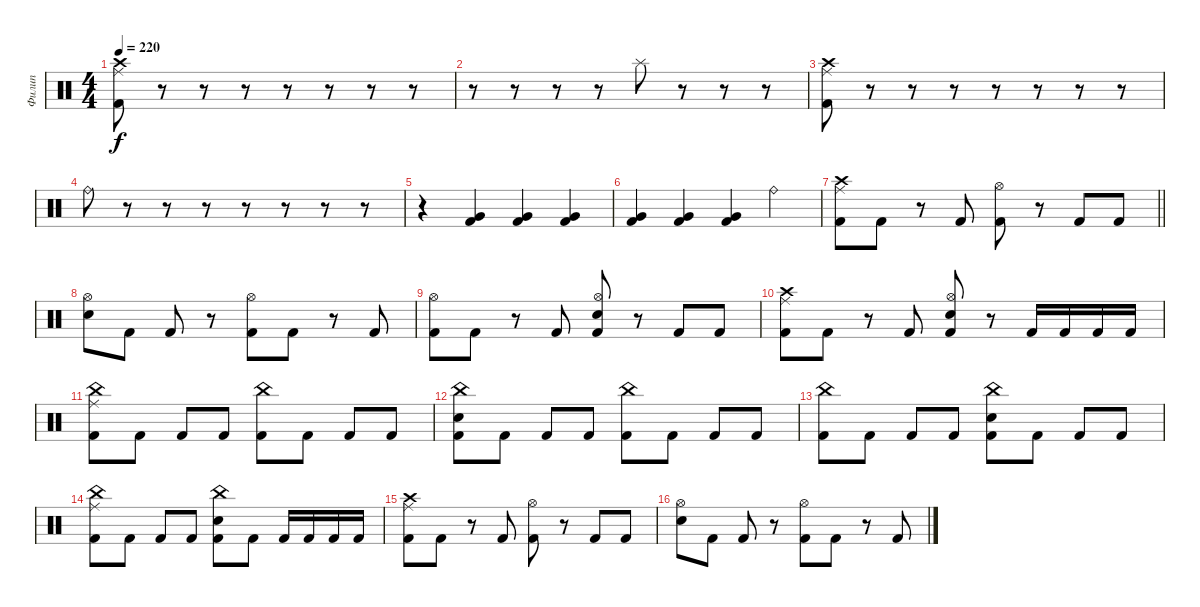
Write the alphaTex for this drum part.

\track ("Филип" "Филип") {instrument percussion}
\staff {score}
\articulation defaults
\ts (4 4)
\tempo 220
\clef neutral
\ks c
("Crash high (hit)" "Ride (middle)" "Kick (hit) 2").8{dy f} r.8 r.8 r.8 r.8 r.8 r.8 r.8 |
r.8 r.8 r.8 r.8 "Splash (hit)".8 r.8 r.8 r.8 |
("Crash high (hit)" "Ride (middle)" "Kick (hit) 2").8 r.8 r.8 r.8 r.8 r.8 r.8 r.8 |
"Ride (bell)".8 r.8 r.8 r.8 r.8 r.8 r.8 r.8{volume 9} |
r.4{volume 15} ("Very Low Tom (hit)" "Kick (hit) 2").4 ("Very Low Tom (hit)" "Kick (hit) 2").4 ("Very Low Tom (hit)" "Kick (hit) 2").4 |
("Very Low Tom (hit)" "Kick (hit) 2").4 ("Very Low Tom (hit)" "Kick (hit) 2").4 ("Very Low Tom (hit)" "Kick (hit) 2").4 "Ride (bell)".4 |
\barLineRight lightlight
("Ride (middle)" "Crash high (hit)" "Kick (hit) 2").8 "Kick (hit) 2".8 r.8 "Kick (hit) 2".8 ("Hi-Hat (open)" "Kick (hit) 2").8 r.8 "Kick (hit) 2".8 "Kick (hit) 2".8 |
("Hi-Hat (open)" "Electric Snare (hit)").8 "Kick (hit) 2".8 "Kick (hit) 2".8 r.8 ("Hi-Hat (open)" "Kick (hit) 2").8 "Kick (hit) 2".8 r.8 "Kick (hit) 2".8 |
("Hi-Hat (open)" "Kick (hit) 2").8 "Kick (hit) 2".8 r.8 "Kick (hit) 2".8 ("Hi-Hat (open)" "Electric Snare (hit)" "Kick (hit) 2").8 r.8 "Kick (hit) 2".8 "Kick (hit) 2".8 |
("Ride (middle)" "Crash high (hit)" "Kick (hit) 2").8 "Kick (hit) 2".8 r.8 "Kick (hit) 2".8 ("Hi-Hat (open)" "Electric Snare (hit)" "Kick (hit) 2").8 r.8 "Kick (hit) 2".16 "Kick (hit) 2".16 "Kick (hit) 2".16 "Kick (hit) 2".16 |
("Ride (middle)" "China (hit)" "Kick (hit) 2").8 "Kick (hit) 2".8 "Kick (hit) 2".8 "Kick (hit) 2".8 ("China (hit)" "Kick (hit) 2").8 "Kick (hit) 2".8 "Kick (hit) 2".8 "Kick (hit) 2".8 |
("Kick (hit) 2" "China (hit)" "Electric Snare (hit)").8 "Kick (hit) 2".8 "Kick (hit) 2".8 "Kick (hit) 2".8 ("China (hit)" "Kick (hit) 2").8 "Kick (hit) 2".8 "Kick (hit) 2".8 "Kick (hit) 2".8 |
("China (hit)" "Kick (hit) 2").8 "Kick (hit) 2".8 "Kick (hit) 2".8 "Kick (hit) 2".8 ("China (hit)" "Electric Snare (hit)" "Kick (hit) 2").8 "Kick (hit) 2".8 "Kick (hit) 2".8 "Kick (hit) 2".8 |
("Ride (middle)" "China (hit)" "Kick (hit) 2").8 "Kick (hit) 2".8 "Kick (hit) 2".8 "Kick (hit) 2".8 ("China (hit)" "Electric Snare (hit)" "Kick (hit) 2").8 "Kick (hit) 2".8 "Kick (hit) 2".16 "Kick (hit) 2".16 "Kick (hit) 2".16 "Kick (hit) 2".16 |
("Ride (middle)" "Crash high (hit)" "Kick (hit) 2").8 "Kick (hit) 2".8 r.8 "Kick (hit) 2".8 ("Hi-Hat (open)" "Kick (hit) 2").8 r.8 "Kick (hit) 2".8 "Kick (hit) 2".8 |
("Hi-Hat (open)" "Electric Snare (hit)").8 "Kick (hit) 2".8 "Kick (hit) 2".8 r.8 ("Hi-Hat (open)" "Kick (hit) 2").8 "Kick (hit) 2".8 r.8 "Kick (hit) 2".8
